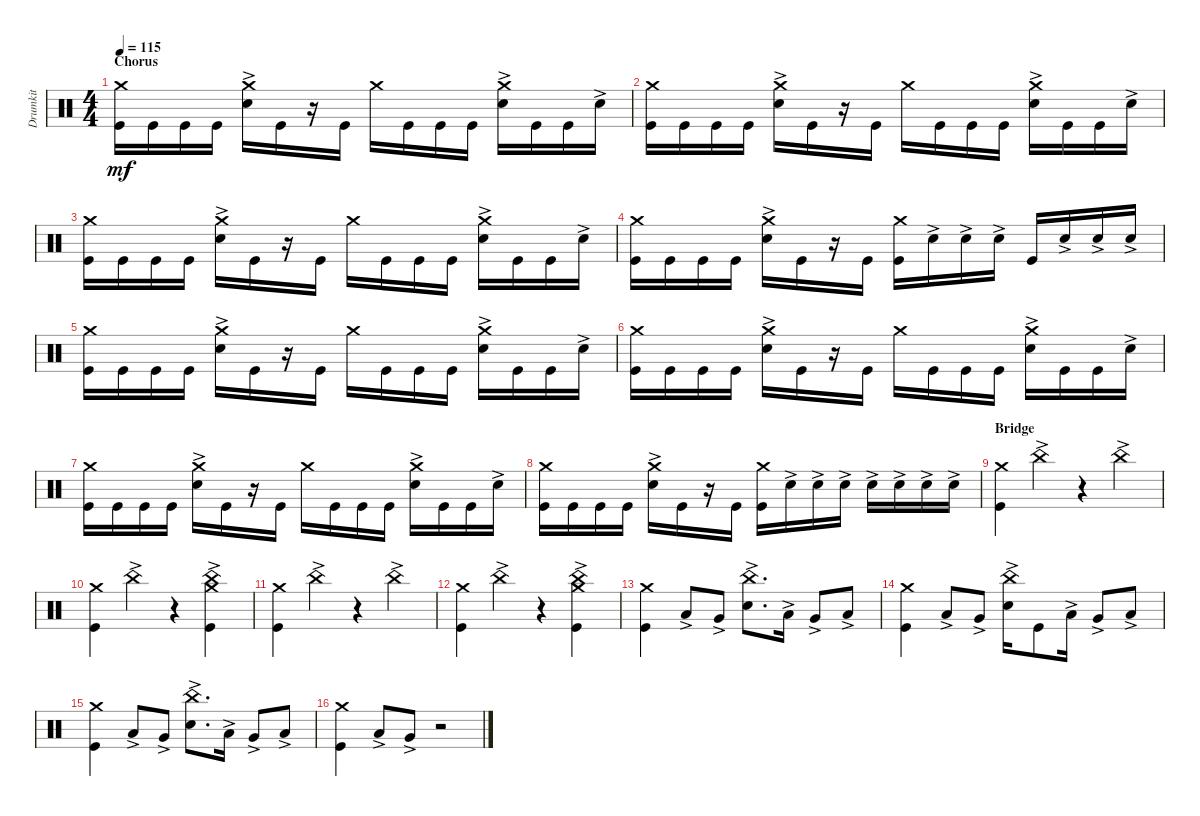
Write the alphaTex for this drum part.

\track ("Drumkit" "Drumkit") {instrument percussion}
\staff {score}
\articulation defaults
\ts (4 4)
\section ("" "Chorus")
\tempo 115
\clef neutral
\ks c
("Crash medium (hit)" "Kick (hit)").16{dy mf} "Kick (hit)".16 "Kick (hit)".16 "Kick (hit)".16 ("Crash medium (hit)" "Snare (hit) 2"{ac}).16 "Kick (hit)".16 r.16 "Kick (hit)".16 "Crash medium (hit)".16 "Kick (hit)".16 "Kick (hit)".16 "Kick (hit)".16 ("Crash medium (hit)" "Snare (hit) 2"{ac}).16 "Kick (hit)".16 "Kick (hit)".16 "Snare (hit) 2"{ac}.16 |
("Crash medium (hit)" "Kick (hit)").16 "Kick (hit)".16 "Kick (hit)".16 "Kick (hit)".16 ("Crash medium (hit)" "Snare (hit) 2"{ac}).16 "Kick (hit)".16 r.16 "Kick (hit)".16 "Crash medium (hit)".16 "Kick (hit)".16 "Kick (hit)".16 "Kick (hit)".16 ("Crash medium (hit)" "Snare (hit) 2"{ac}).16 "Kick (hit)".16 "Kick (hit)".16 "Snare (hit) 2"{ac}.16 |
("Crash medium (hit)" "Kick (hit)").16 "Kick (hit)".16 "Kick (hit)".16 "Kick (hit)".16 ("Crash medium (hit)" "Snare (hit) 2"{ac}).16 "Kick (hit)".16 r.16 "Kick (hit)".16 "Crash medium (hit)".16 "Kick (hit)".16 "Kick (hit)".16 "Kick (hit)".16 ("Crash medium (hit)" "Snare (hit) 2"{ac}).16 "Kick (hit)".16 "Kick (hit)".16 "Snare (hit) 2"{ac}.16 |
("Crash medium (hit)" "Kick (hit)").16 "Kick (hit)".16 "Kick (hit)".16 "Kick (hit)".16 ("Crash medium (hit)" "Snare (hit) 2"{ac}).16 "Kick (hit)".16 r.16 "Kick (hit)".16 ("Kick (hit)" "Crash medium (hit)").16 "Snare (hit) 2"{ac}.16 "Snare (hit) 2"{ac}.16 "Snare (hit) 2"{ac}.16 "Kick (hit)".16 "Snare (hit) 2"{ac}.16 "Snare (hit) 2"{ac}.16 "Snare (hit) 2"{ac}.16 |
("Crash medium (hit)" "Kick (hit)").16 "Kick (hit)".16 "Kick (hit)".16 "Kick (hit)".16 ("Crash medium (hit)" "Snare (hit) 2"{ac}).16 "Kick (hit)".16 r.16 "Kick (hit)".16 "Crash medium (hit)".16 "Kick (hit)".16 "Kick (hit)".16 "Kick (hit)".16 ("Crash medium (hit)" "Snare (hit) 2"{ac}).16 "Kick (hit)".16 "Kick (hit)".16 "Snare (hit) 2"{ac}.16 |
("Crash medium (hit)" "Kick (hit)").16 "Kick (hit)".16 "Kick (hit)".16 "Kick (hit)".16 ("Crash medium (hit)" "Snare (hit) 2"{ac}).16 "Kick (hit)".16 r.16 "Kick (hit)".16 "Crash medium (hit)".16 "Kick (hit)".16 "Kick (hit)".16 "Kick (hit)".16 ("Crash medium (hit)" "Snare (hit) 2"{ac}).16 "Kick (hit)".16 "Kick (hit)".16 "Snare (hit) 2"{ac}.16 |
("Crash medium (hit)" "Kick (hit)").16 "Kick (hit)".16 "Kick (hit)".16 "Kick (hit)".16 ("Crash medium (hit)" "Snare (hit) 2"{ac}).16 "Kick (hit)".16 r.16 "Kick (hit)".16 "Crash medium (hit)".16 "Kick (hit)".16 "Kick (hit)".16 "Kick (hit)".16 ("Crash medium (hit)" "Snare (hit) 2"{ac}).16 "Kick (hit)".16 "Kick (hit)".16 "Snare (hit) 2"{ac}.16 |
("Crash medium (hit)" "Kick (hit)").16 "Kick (hit)".16 "Kick (hit)".16 "Kick (hit)".16 ("Crash medium (hit)" "Snare (hit) 2"{ac}).16 "Kick (hit)".16 r.16 "Kick (hit)".16 ("Kick (hit)" "Crash medium (hit)").16 "Snare (hit) 2"{ac}.16 "Snare (hit) 2"{ac}.16 "Snare (hit) 2"{ac}.16 "Snare (hit) 2"{ac}.16 "Snare (hit) 2"{ac}.16 "Snare (hit) 2"{ac}.16 "Snare (hit) 2"{ac}.16 |
\section ("" "Bridge")
("Kick (hit)" "Crash medium (hit)").4 "China (hit)"{ac}.4 r.4 "China (hit)"{ac}.4 |
("Crash medium (hit)" "Kick (hit)").4 "China (hit)"{ac}.4 r.4 ("China (hit)"{ac} "Kick (hit)" "Crash medium (hit)").4 |
("Crash medium (hit)" "Kick (hit)").4 "China (hit)"{ac}.4 r.4 "China (hit)"{ac}.4 |
("Crash medium (hit)" "Kick (hit)").4 "China (hit)"{ac}.4 r.4 ("China (hit)"{ac} "Kick (hit)" "Crash medium (hit)").4 |
("Kick (hit)" "Crash medium (hit)").4 "Low Tom (hit)"{ac}.8 "Very Low Tom (hit)"{ac}.8 ("Snare (hit) 2"{ac} "China (hit)"{ac}).8{d} "Low Tom (hit)"{ac}.16 "Very Low Tom (hit)"{ac}.8 "Low Floor Tom (hit)"{ac}.8 |
("Kick (hit)" "Crash medium (hit)").4 "Low Tom (hit)"{ac}.8 "Very Low Tom (hit)"{ac}.8 ("Snare (hit) 2"{ac} "China (hit)"{ac}).16 "Kick (hit)".8 "Low Tom (hit)"{ac}.16 "Very Low Tom (hit)"{ac}.8 "Low Floor Tom (hit)"{ac}.8 |
("Kick (hit)" "Crash medium (hit)").4 "Low Tom (hit)"{ac}.8 "Very Low Tom (hit)"{ac}.8 ("Snare (hit) 2"{ac} "China (hit)"{ac}).8{d} "Low Tom (hit)"{ac}.16 "Very Low Tom (hit)"{ac}.8 "Low Floor Tom (hit)"{ac}.8 |
("Kick (hit)" "Crash medium (hit)").4 "Low Tom (hit)"{ac}.8 "Very Low Tom (hit)"{ac}.8 r.2
